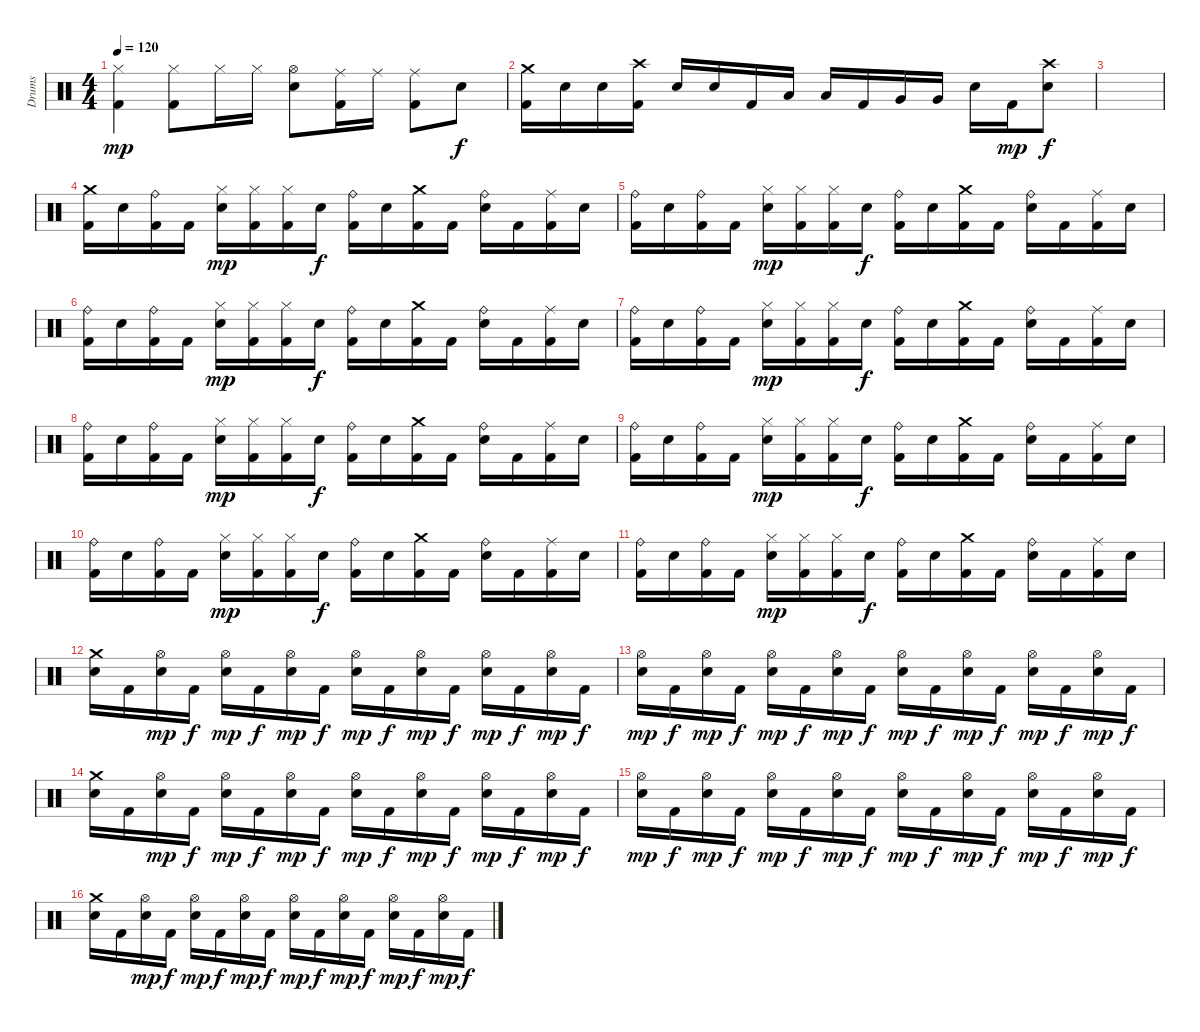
\track ("Drums" "Drums") {instrument percussion}
\staff {score}
\articulation defaults
\ts (4 4)
\tempo 120
\clef neutral
\ks c
("Hi-Hat (closed)" "Kick (hit) 2").4{dy mp} ("Hi-Hat (closed)" "Kick (hit) 2").8 "Hi-Hat (closed)".16 "Hi-Hat (closed)".16 ("Hi-Hat (open)" "Snare (hit) 2").8 ("Ride (middle)" "Kick (hit) 2").16 "Ride (middle)".16 ("Ride (middle)" "Kick (hit) 2").8 "Snare (hit) 2".8{dy f} |
("Crash medium (hit)" "Kick (hit) 2").16 "Snare (hit) 2".16 "Snare (hit) 2".16 ("Crash high (hit)" "Kick (hit) 2").16 "Snare (hit) 2".16 "Snare (hit) 2".16 "Kick (hit) 2".16 "Low Tom (hit)".16 "Low Tom (hit)".16 "Kick (hit) 2".16 "Very Low Tom (hit)".16 "Very Low Tom (hit)".16 "Snare (hit) 2".16 "Kick (hit) 2".16{dy mp} ("Crash high (hit)" "Snare (hit) 2").8{dy f} |
|
("Crash medium (hit)" "Kick (hit) 2").16 "Snare (hit) 2".16 ("Ride (bell)" "Kick (hit) 2").16 "Kick (hit) 2".16 ("Hi-Hat (closed)" "Snare (hit) 2").16{dy mp} ("Hi-Hat (closed)" "Kick (hit) 2").16 ("Hi-Hat (closed)" "Kick (hit) 2").16 "Snare (hit) 2".16{dy f} ("Ride (bell)" "Kick (hit) 2").16 "Snare (hit) 2".16 ("Crash medium (hit)" "Kick (hit) 2").16 "Kick (hit) 2".16 ("Ride (bell)" "Snare (hit) 2").16 "Kick (hit) 2".16 ("Ride (middle)" "Kick (hit) 2").16 "Snare (hit) 2".16 |
("Ride (bell)" "Kick (hit) 2").16 "Snare (hit) 2".16 ("Ride (bell)" "Kick (hit) 2").16 "Kick (hit) 2".16 ("Hi-Hat (closed)" "Snare (hit) 2").16{dy mp} ("Hi-Hat (closed)" "Kick (hit) 2").16 ("Hi-Hat (closed)" "Kick (hit) 2").16 "Snare (hit) 2".16{dy f} ("Ride (bell)" "Kick (hit) 2").16 "Snare (hit) 2".16 ("Crash medium (hit)" "Kick (hit) 2").16 "Kick (hit) 2".16 ("Ride (bell)" "Snare (hit) 2").16 "Kick (hit) 2".16 ("Ride (middle)" "Kick (hit) 2").16 "Snare (hit) 2".16 |
("Ride (bell)" "Kick (hit) 2").16 "Snare (hit) 2".16 ("Ride (bell)" "Kick (hit) 2").16 "Kick (hit) 2".16 ("Hi-Hat (closed)" "Snare (hit) 2").16{dy mp} ("Hi-Hat (closed)" "Kick (hit) 2").16 ("Hi-Hat (closed)" "Kick (hit) 2").16 "Snare (hit) 2".16{dy f} ("Ride (bell)" "Kick (hit) 2").16 "Snare (hit) 2".16 ("Crash medium (hit)" "Kick (hit) 2").16 "Kick (hit) 2".16 ("Ride (bell)" "Snare (hit) 2").16 "Kick (hit) 2".16 ("Ride (middle)" "Kick (hit) 2").16 "Snare (hit) 2".16 |
("Ride (bell)" "Kick (hit) 2").16 "Snare (hit) 2".16 ("Ride (bell)" "Kick (hit) 2").16 "Kick (hit) 2".16 ("Hi-Hat (closed)" "Snare (hit) 2").16{dy mp} ("Hi-Hat (closed)" "Kick (hit) 2").16 ("Hi-Hat (closed)" "Kick (hit) 2").16 "Snare (hit) 2".16{dy f} ("Ride (bell)" "Kick (hit) 2").16 "Snare (hit) 2".16 ("Crash medium (hit)" "Kick (hit) 2").16 "Kick (hit) 2".16 ("Ride (bell)" "Snare (hit) 2").16 "Kick (hit) 2".16 ("Ride (middle)" "Kick (hit) 2").16 "Snare (hit) 2".16 |
("Ride (bell)" "Kick (hit) 2").16 "Snare (hit) 2".16 ("Ride (bell)" "Kick (hit) 2").16 "Kick (hit) 2".16 ("Hi-Hat (closed)" "Snare (hit) 2").16{dy mp} ("Hi-Hat (closed)" "Kick (hit) 2").16 ("Hi-Hat (closed)" "Kick (hit) 2").16 "Snare (hit) 2".16{dy f} ("Ride (bell)" "Kick (hit) 2").16 "Snare (hit) 2".16 ("Crash medium (hit)" "Kick (hit) 2").16 "Kick (hit) 2".16 ("Ride (bell)" "Snare (hit) 2").16 "Kick (hit) 2".16 ("Ride (middle)" "Kick (hit) 2").16 "Snare (hit) 2".16 |
("Ride (bell)" "Kick (hit) 2").16 "Snare (hit) 2".16 ("Ride (bell)" "Kick (hit) 2").16 "Kick (hit) 2".16 ("Hi-Hat (closed)" "Snare (hit) 2").16{dy mp} ("Hi-Hat (closed)" "Kick (hit) 2").16 ("Hi-Hat (closed)" "Kick (hit) 2").16 "Snare (hit) 2".16{dy f} ("Ride (bell)" "Kick (hit) 2").16 "Snare (hit) 2".16 ("Crash medium (hit)" "Kick (hit) 2").16 "Kick (hit) 2".16 ("Ride (bell)" "Snare (hit) 2").16 "Kick (hit) 2".16 ("Ride (middle)" "Kick (hit) 2").16 "Snare (hit) 2".16 |
("Ride (bell)" "Kick (hit) 2").16 "Snare (hit) 2".16 ("Ride (bell)" "Kick (hit) 2").16 "Kick (hit) 2".16 ("Hi-Hat (closed)" "Snare (hit) 2").16{dy mp} ("Hi-Hat (closed)" "Kick (hit) 2").16 ("Hi-Hat (closed)" "Kick (hit) 2").16 "Snare (hit) 2".16{dy f} ("Ride (bell)" "Kick (hit) 2").16 "Snare (hit) 2".16 ("Crash medium (hit)" "Kick (hit) 2").16 "Kick (hit) 2".16 ("Ride (bell)" "Snare (hit) 2").16 "Kick (hit) 2".16 ("Ride (middle)" "Kick (hit) 2").16 "Snare (hit) 2".16 |
("Ride (bell)" "Kick (hit) 2").16 "Snare (hit) 2".16 ("Ride (bell)" "Kick (hit) 2").16 "Kick (hit) 2".16 ("Hi-Hat (closed)" "Snare (hit) 2").16{dy mp} ("Hi-Hat (closed)" "Kick (hit) 2").16 ("Hi-Hat (closed)" "Kick (hit) 2").16 "Snare (hit) 2".16{dy f} ("Ride (bell)" "Kick (hit) 2").16 "Snare (hit) 2".16 ("Crash medium (hit)" "Kick (hit) 2").16 "Kick (hit) 2".16 ("Ride (bell)" "Snare (hit) 2").16 "Kick (hit) 2".16 ("Ride (middle)" "Kick (hit) 2").16 "Snare (hit) 2".16 |
("Crash medium (hit)" "Snare (hit) 2").16 "Kick (hit) 2".16 ("Hi-Hat (open)" "Snare (hit) 2").16{dy mp} "Kick (hit) 2".16{dy f} ("Hi-Hat (open)" "Snare (hit) 2").16{dy mp} "Kick (hit) 2".16{dy f} ("Hi-Hat (open)" "Snare (hit) 2").16{dy mp} "Kick (hit) 2".16{dy f} ("Hi-Hat (open)" "Snare (hit) 2").16{dy mp} "Kick (hit) 2".16{dy f} ("Hi-Hat (open)" "Snare (hit) 2").16{dy mp} "Kick (hit) 2".16{dy f} ("Hi-Hat (open)" "Snare (hit) 2").16{dy mp} "Kick (hit) 2".16{dy f} ("Hi-Hat (open)" "Snare (hit) 2").16{dy mp} "Kick (hit) 2".16{dy f} |
("Hi-Hat (open)" "Snare (hit) 2").16{dy mp} "Kick (hit) 2".16{dy f} ("Hi-Hat (open)" "Snare (hit) 2").16{dy mp} "Kick (hit) 2".16{dy f} ("Hi-Hat (open)" "Snare (hit) 2").16{dy mp} "Kick (hit) 2".16{dy f} ("Hi-Hat (open)" "Snare (hit) 2").16{dy mp} "Kick (hit) 2".16{dy f} ("Hi-Hat (open)" "Snare (hit) 2").16{dy mp} "Kick (hit) 2".16{dy f} ("Hi-Hat (open)" "Snare (hit) 2").16{dy mp} "Kick (hit) 2".16{dy f} ("Hi-Hat (open)" "Snare (hit) 2").16{dy mp} "Kick (hit) 2".16{dy f} ("Hi-Hat (open)" "Snare (hit) 2").16{dy mp} "Kick (hit) 2".16{dy f} |
("Crash medium (hit)" "Snare (hit) 2").16 "Kick (hit) 2".16 ("Hi-Hat (open)" "Snare (hit) 2").16{dy mp} "Kick (hit) 2".16{dy f} ("Hi-Hat (open)" "Snare (hit) 2").16{dy mp} "Kick (hit) 2".16{dy f} ("Hi-Hat (open)" "Snare (hit) 2").16{dy mp} "Kick (hit) 2".16{dy f} ("Hi-Hat (open)" "Snare (hit) 2").16{dy mp} "Kick (hit) 2".16{dy f} ("Hi-Hat (open)" "Snare (hit) 2").16{dy mp} "Kick (hit) 2".16{dy f} ("Hi-Hat (open)" "Snare (hit) 2").16{dy mp} "Kick (hit) 2".16{dy f} ("Hi-Hat (open)" "Snare (hit) 2").16{dy mp} "Kick (hit) 2".16{dy f} |
("Hi-Hat (open)" "Snare (hit) 2").16{dy mp} "Kick (hit) 2".16{dy f} ("Hi-Hat (open)" "Snare (hit) 2").16{dy mp} "Kick (hit) 2".16{dy f} ("Hi-Hat (open)" "Snare (hit) 2").16{dy mp} "Kick (hit) 2".16{dy f} ("Hi-Hat (open)" "Snare (hit) 2").16{dy mp} "Kick (hit) 2".16{dy f} ("Hi-Hat (open)" "Snare (hit) 2").16{dy mp} "Kick (hit) 2".16{dy f} ("Hi-Hat (open)" "Snare (hit) 2").16{dy mp} "Kick (hit) 2".16{dy f} ("Hi-Hat (open)" "Snare (hit) 2").16{dy mp} "Kick (hit) 2".16{dy f} ("Hi-Hat (open)" "Snare (hit) 2").16{dy mp} "Kick (hit) 2".16{dy f} |
("Crash medium (hit)" "Snare (hit) 2").16 "Kick (hit) 2".16 ("Hi-Hat (open)" "Snare (hit) 2").16{dy mp} "Kick (hit) 2".16{dy f} ("Hi-Hat (open)" "Snare (hit) 2").16{dy mp} "Kick (hit) 2".16{dy f} ("Hi-Hat (open)" "Snare (hit) 2").16{dy mp} "Kick (hit) 2".16{dy f} ("Hi-Hat (open)" "Snare (hit) 2").16{dy mp} "Kick (hit) 2".16{dy f} ("Hi-Hat (open)" "Snare (hit) 2").16{dy mp} "Kick (hit) 2".16{dy f} ("Hi-Hat (open)" "Snare (hit) 2").16{dy mp} "Kick (hit) 2".16{dy f} ("Hi-Hat (open)" "Snare (hit) 2").16{dy mp} "Kick (hit) 2".16{dy f}
